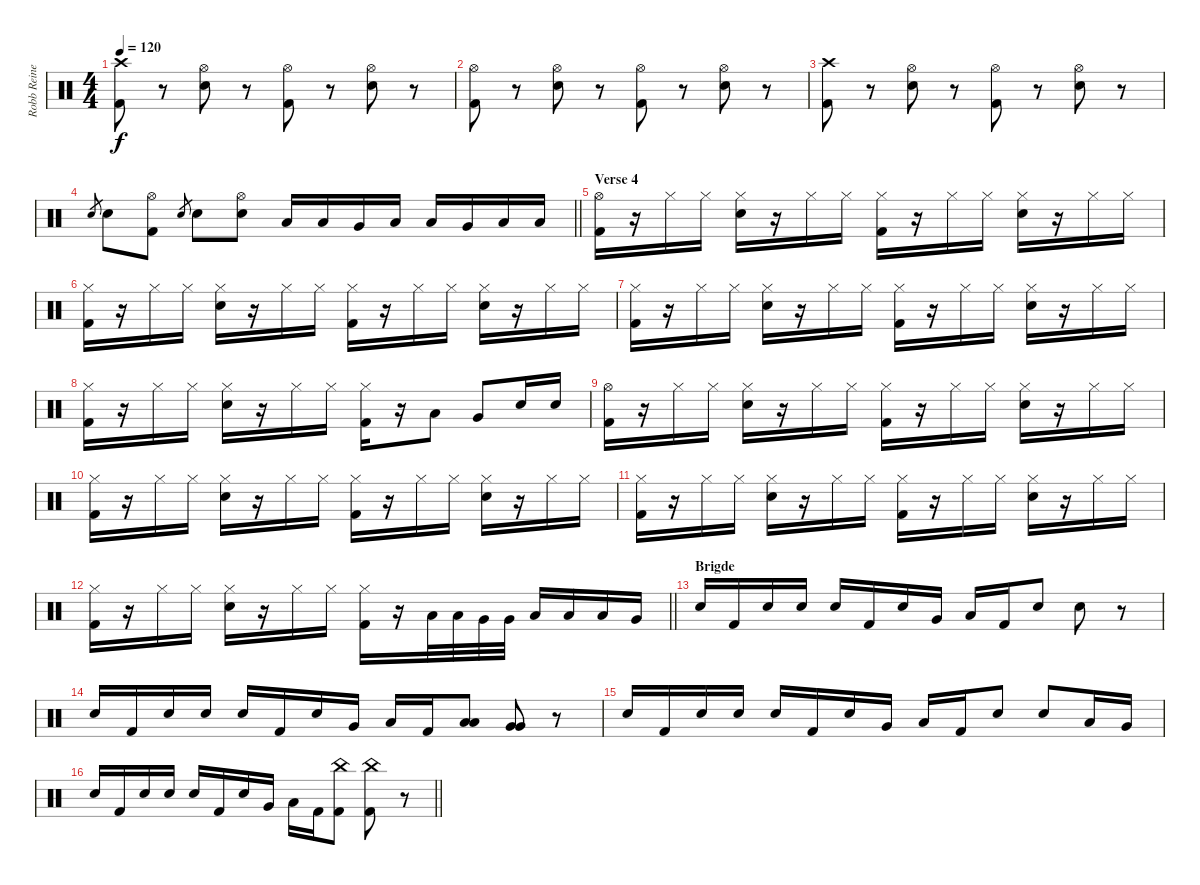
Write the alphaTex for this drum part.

\track ("Robb Reiner" "Robb Reine") {instrument percussion}
\staff {score}
\articulation defaults
\ts (4 4)
\tempo 120
\clef neutral
\ks c
("Kick (hit) 2" "Crash high (hit)").8{dy f} r.8 ("Snare (hit) 2" "Hi-Hat (open)").8 r.8 ("Kick (hit) 2" "Hi-Hat (open)").8 r.8 ("Snare (hit) 2" "Hi-Hat (open)").8 r.8 |
("Kick (hit) 2" "Hi-Hat (open)").8 r.8 ("Snare (hit) 2" "Hi-Hat (open)").8 r.8 ("Kick (hit) 2" "Hi-Hat (open)").8 r.8 ("Snare (hit) 2" "Hi-Hat (open)").8 r.8 |
("Kick (hit) 2" "Crash high (hit)").8 r.8 ("Snare (hit) 2" "Hi-Hat (open)").8 r.8 ("Kick (hit) 2" "Hi-Hat (open)").8 r.8 ("Snare (hit) 2" "Hi-Hat (open)").8 r.8 |
\barLineRight lightlight "Snare (hit) 2".8{gr} "Snare (hit) 2".8
("Kick (hit) 2" "Hi-Hat (open)").8 "Snare (hit) 2".8{gr} "Snare (hit) 2".8 ("Snare (hit) 2" "Hi-Hat (open)").8 "Low Tom (hit)".16 "Low Tom (hit)".16 "Very Low Tom (hit)".16 "Low Floor Tom (hit)".16 "Low Tom (hit)".16 "Very Low Tom (hit)".16 "Low Floor Tom (hit)".16 "Low Tom (hit)".16 |
\section ("" "Verse 4")
("Hi-Hat (open)" "Kick (hit) 2").16 r.16 "Hi-Hat (closed)".16 "Hi-Hat (closed)".16 ("Hi-Hat (closed)" "Snare (hit) 2").16 r.16 "Hi-Hat (closed)".16 "Hi-Hat (closed)".16 ("Hi-Hat (closed)" "Kick (hit) 2").16 r.16 "Hi-Hat (closed)".16 "Hi-Hat (closed)".16 ("Hi-Hat (closed)" "Snare (hit) 2").16 r.16 "Hi-Hat (closed)".16 "Hi-Hat (closed)".16 |
("Hi-Hat (closed)" "Kick (hit) 2").16 r.16 "Hi-Hat (closed)".16 "Hi-Hat (closed)".16 ("Hi-Hat (closed)" "Snare (hit) 2").16 r.16 "Hi-Hat (closed)".16 "Hi-Hat (closed)".16 ("Hi-Hat (closed)" "Kick (hit) 2").16 r.16 "Hi-Hat (closed)".16 "Hi-Hat (closed)".16 ("Hi-Hat (closed)" "Snare (hit) 2").16 r.16 "Hi-Hat (closed)".16 "Hi-Hat (closed)".16 |
("Hi-Hat (closed)" "Kick (hit) 2").16 r.16 "Hi-Hat (closed)".16 "Hi-Hat (closed)".16 ("Hi-Hat (closed)" "Snare (hit) 2").16 r.16 "Hi-Hat (closed)".16 "Hi-Hat (closed)".16 ("Hi-Hat (closed)" "Kick (hit) 2").16 r.16 "Hi-Hat (closed)".16 "Hi-Hat (closed)".16 ("Hi-Hat (closed)" "Snare (hit) 2").16 r.16 "Hi-Hat (closed)".16 "Hi-Hat (closed)".16 |
("Hi-Hat (closed)" "Kick (hit) 2").16 r.16 "Hi-Hat (closed)".16 "Hi-Hat (closed)".16 ("Hi-Hat (closed)" "Snare (hit) 2").16 r.16 "Hi-Hat (closed)".16 "Hi-Hat (closed)".16 ("Hi-Hat (closed)" "Kick (hit) 2").16 r.16 "Low Tom (hit)".8 "Very Low Tom (hit)".8 "Snare (hit) 2".16 "Snare (hit) 2".16 |
("Hi-Hat (open)" "Kick (hit) 2").16 r.16 "Hi-Hat (closed)".16 "Hi-Hat (closed)".16 ("Hi-Hat (closed)" "Snare (hit) 2").16 r.16 "Hi-Hat (closed)".16 "Hi-Hat (closed)".16 ("Hi-Hat (closed)" "Kick (hit) 2").16 r.16 "Hi-Hat (closed)".16 "Hi-Hat (closed)".16 ("Hi-Hat (closed)" "Snare (hit) 2").16 r.16 "Hi-Hat (closed)".16 "Hi-Hat (closed)".16 |
("Hi-Hat (closed)" "Kick (hit) 2").16 r.16 "Hi-Hat (closed)".16 "Hi-Hat (closed)".16 ("Hi-Hat (closed)" "Snare (hit) 2").16 r.16 "Hi-Hat (closed)".16 "Hi-Hat (closed)".16 ("Hi-Hat (closed)" "Kick (hit) 2").16 r.16 "Hi-Hat (closed)".16 "Hi-Hat (closed)".16 ("Hi-Hat (closed)" "Snare (hit) 2").16 r.16 "Hi-Hat (closed)".16 "Hi-Hat (closed)".16 |
("Hi-Hat (closed)" "Kick (hit) 2").16 r.16 "Hi-Hat (closed)".16 "Hi-Hat (closed)".16 ("Hi-Hat (closed)" "Snare (hit) 2").16 r.16 "Hi-Hat (closed)".16 "Hi-Hat (closed)".16 ("Hi-Hat (closed)" "Kick (hit) 2").16 r.16 "Hi-Hat (closed)".16 "Hi-Hat (closed)".16 ("Hi-Hat (closed)" "Snare (hit) 2").16 r.16 "Hi-Hat (closed)".16 "Hi-Hat (closed)".16 |
\barLineRight lightlight
("Hi-Hat (closed)" "Kick (hit) 2").16 r.16 "Hi-Hat (closed)".16 "Hi-Hat (closed)".16 ("Hi-Hat (closed)" "Snare (hit) 2").16 r.16 "Hi-Hat (closed)".16 "Hi-Hat (closed)".16 ("Hi-Hat (closed)" "Kick (hit) 2").16 r.16 "Low Tom (hit)".32 "Low Tom (hit)".32 "Very Low Tom (hit)".32 "Very Low Tom (hit)".32 "Low Floor Tom (hit)".16 "Low Floor Tom (hit)".16 "Low Tom (hit)".16 "Very Low Tom (hit)".16 |
\section ("" "Brigde")
"Snare (hit) 2".16 "Kick (hit) 2".16 "Snare (hit) 2".16 "Snare (hit) 2".16 "Snare (hit) 2".16 "Kick (hit) 2".16 "Snare (hit) 2".16 "Very Low Tom (hit)".16 "Low Floor Tom (hit)".16 "Kick (hit) 2".16 "Snare (hit) 2".8 "Snare (hit) 2".8 r.8 |
"Snare (hit) 2".16 "Kick (hit) 2".16 "Snare (hit) 2".16 "Snare (hit) 2".16 "Snare (hit) 2".16 "Kick (hit) 2".16 "Snare (hit) 2".16 "Very Low Tom (hit)".16 "Low Floor Tom (hit)".16 "Kick (hit) 2".16 ("Low Tom (hit)" "Low Tom (hit)").8 ("Very Low Tom (hit)" "Very Low Tom (hit)").8 r.8 |
"Snare (hit) 2".16 "Kick (hit) 2".16 "Snare (hit) 2".16 "Snare (hit) 2".16 "Snare (hit) 2".16 "Kick (hit) 2".16 "Snare (hit) 2".16 "Very Low Tom (hit)".16 "Low Floor Tom (hit)".16 "Kick (hit) 2".16 "Snare (hit) 2".8 "Snare (hit) 2".8 "Low Tom (hit)".16 "Very Low Tom (hit)".16 |
\barLineRight lightlight "Snare (hit) 2".16 "Kick (hit) 2".16 "Snare (hit) 2".16 "Snare (hit) 2".16 "Snare (hit) 2".16 "Kick (hit) 2".16 "Snare (hit) 2".16 "Very Low Tom (hit)".16 "Low Floor Tom (hit)".16 "Kick (hit) 2".16
("Kick (hit) 2" "China (hit)").8 ("Kick (hit) 2" "China (hit)").8 r.8
